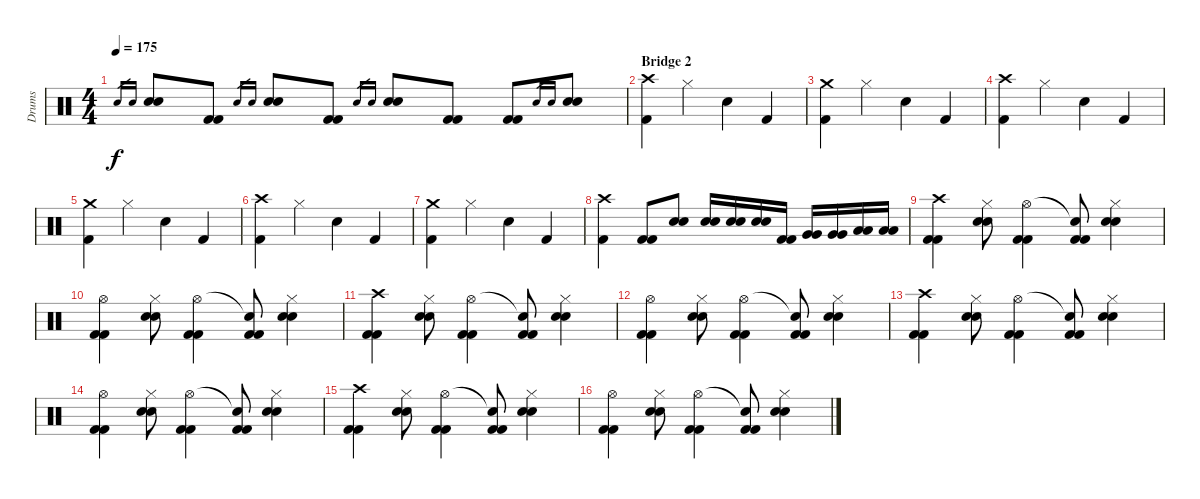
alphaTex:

\track ("Drums" "Drums") {instrument percussion}
\staff {score}
\articulation defaults
\ts (4 4)
\tempo 175
\clef neutral
\ks c "Snare (hit) 2".16{gr dy f} "Snare (hit) 2".16{gr}
("Snare (hit) 2" "Snare (hit) 2").8 ("Kick (hit) 2" "Kick (hit) 2").8 "Snare (hit) 2".16{gr} "Snare (hit) 2".16{gr} ("Snare (hit) 2" "Snare (hit) 2").8 ("Kick (hit) 2" "Kick (hit) 2").8 "Snare (hit) 2".16{gr} "Snare (hit) 2".16{gr} ("Snare (hit) 2" "Snare (hit) 2").8 ("Kick (hit) 2" "Kick (hit) 2").8 ("Kick (hit) 2" "Kick (hit) 2").8 "Snare (hit) 2".16{gr} "Snare (hit) 2".16{gr} ("Snare (hit) 2" "Snare (hit) 2").8 |
\section ("" "Bridge 2")
("Crash high (hit)" "Kick (hit) 2").4 "Hi-Hat (closed)".4 "Snare (hit) 2".4 "Kick (hit) 2".4 |
("Crash medium (hit)" "Kick (hit) 2").4 "Hi-Hat (closed)".4 "Snare (hit) 2".4 "Kick (hit) 2".4 |
("Crash high (hit)" "Kick (hit) 2").4 "Hi-Hat (closed)".4 "Snare (hit) 2".4 "Kick (hit) 2".4 |
("Crash medium (hit)" "Kick (hit) 2").4 "Hi-Hat (closed)".4 "Snare (hit) 2".4 "Kick (hit) 2".4 |
("Crash high (hit)" "Kick (hit) 2").4 "Hi-Hat (closed)".4 "Snare (hit) 2".4 "Kick (hit) 2".4 |
("Crash medium (hit)" "Kick (hit) 2").4 "Hi-Hat (closed)".4 "Snare (hit) 2".4 "Kick (hit) 2".4 |
("Crash high (hit)" "Kick (hit) 2").4 ("Kick (hit) 2" "Kick (hit) 2").8 ("Snare (hit) 2" "Snare (hit) 2").8 ("Snare (hit) 2" "Snare (hit) 2").16 ("Snare (hit) 2" "Snare (hit) 2").16 ("Snare (hit) 2" "Snare (hit) 2").16 ("Kick (hit) 2" "Kick (hit) 2").16 ("Very Low Tom (hit)" "Very Low Tom (hit)").16 ("Very Low Tom (hit)" "Very Low Tom (hit)").16 ("Low Floor Tom (hit)" "Low Floor Tom (hit)").16 ("Low Floor Tom (hit)" "Low Floor Tom (hit)").16 |
("Crash high (hit)" "Kick (hit) 2" "Kick (hit) 2").4 ("Hi-Hat (closed)" "Snare (hit) 2" "Snare (hit) 2").8 ("Hi-Hat (open)" "Kick (hit) 2" "Kick (hit) 2").4 ("Snare (hit)"{t} "Kick (hit) 2" "Kick (hit) 2").8 ("Hi-Hat (closed)" "Snare (hit) 2" "Snare (hit) 2").4 |
("Hi-Hat (open)" "Kick (hit) 2" "Kick (hit) 2").4 ("Hi-Hat (closed)" "Snare (hit) 2" "Snare (hit) 2").8 ("Hi-Hat (open)" "Kick (hit) 2" "Kick (hit) 2").4 ("Snare (hit)"{t} "Kick (hit) 2" "Kick (hit) 2").8 ("Hi-Hat (closed)" "Snare (hit) 2" "Snare (hit) 2").4 |
("Crash high (hit)" "Kick (hit) 2" "Kick (hit) 2").4 ("Hi-Hat (closed)" "Snare (hit) 2" "Snare (hit) 2").8 ("Hi-Hat (open)" "Kick (hit) 2" "Kick (hit) 2").4 ("Snare (hit)"{t} "Kick (hit) 2" "Kick (hit) 2").8 ("Hi-Hat (closed)" "Snare (hit) 2" "Snare (hit) 2").4 |
("Hi-Hat (open)" "Kick (hit) 2" "Kick (hit) 2").4 ("Hi-Hat (closed)" "Snare (hit) 2" "Snare (hit) 2").8 ("Hi-Hat (open)" "Kick (hit) 2" "Kick (hit) 2").4 ("Snare (hit)"{t} "Kick (hit) 2" "Kick (hit) 2").8 ("Hi-Hat (closed)" "Snare (hit) 2" "Snare (hit) 2").4 |
("Crash high (hit)" "Kick (hit) 2" "Kick (hit) 2").4 ("Hi-Hat (closed)" "Snare (hit) 2" "Snare (hit) 2").8 ("Hi-Hat (open)" "Kick (hit) 2" "Kick (hit) 2").4 ("Snare (hit)"{t} "Kick (hit) 2" "Kick (hit) 2").8 ("Hi-Hat (closed)" "Snare (hit) 2" "Snare (hit) 2").4 |
("Hi-Hat (open)" "Kick (hit) 2" "Kick (hit) 2").4 ("Hi-Hat (closed)" "Snare (hit) 2" "Snare (hit) 2").8 ("Hi-Hat (open)" "Kick (hit) 2" "Kick (hit) 2").4 ("Snare (hit)"{t} "Kick (hit) 2" "Kick (hit) 2").8 ("Hi-Hat (closed)" "Snare (hit) 2" "Snare (hit) 2").4 |
("Crash high (hit)" "Kick (hit) 2" "Kick (hit) 2").4 ("Hi-Hat (closed)" "Snare (hit) 2" "Snare (hit) 2").8 ("Hi-Hat (open)" "Kick (hit) 2" "Kick (hit) 2").4 ("Snare (hit)"{t} "Kick (hit) 2" "Kick (hit) 2").8 ("Hi-Hat (closed)" "Snare (hit) 2" "Snare (hit) 2").4 |
("Hi-Hat (open)" "Kick (hit) 2" "Kick (hit) 2").4 ("Hi-Hat (closed)" "Snare (hit) 2" "Snare (hit) 2").8 ("Hi-Hat (open)" "Kick (hit) 2" "Kick (hit) 2").4 ("Snare (hit)"{t} "Kick (hit) 2" "Kick (hit) 2").8 ("Hi-Hat (closed)" "Snare (hit) 2" "Snare (hit) 2").4
